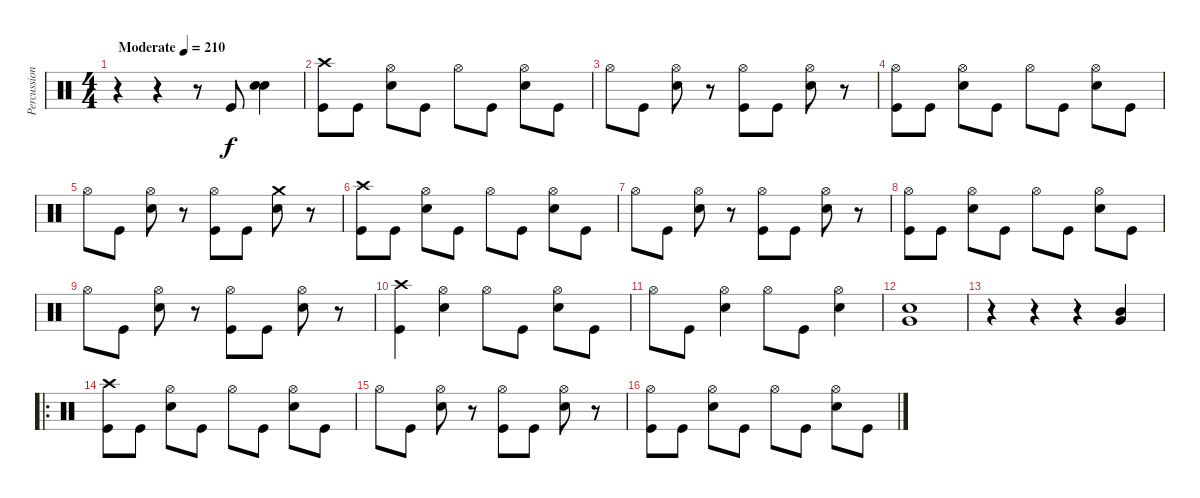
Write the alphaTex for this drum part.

\track ("Percussion" "Percussion") {instrument percussion}
\staff {score}
\articulation defaults
\ts (4 4)
\tempo (210 "Moderate")
\clef neutral
\ks c
r.4{dy f} r.4 r.8 "Kick (hit)".8 ("Electric Snare (hit)" "Electric Snare (hit)").4 |
("Crash high (hit)" "Kick (hit)").8 "Kick (hit)".8 ("Hi-Hat (open)" "Electric Snare (hit)").8 "Kick (hit)".8 "Hi-Hat (open)".8 "Kick (hit)".8 ("Hi-Hat (open)" "Electric Snare (hit)").8 "Kick (hit)".8 |
"Hi-Hat (open)".8 "Kick (hit)".8 ("Hi-Hat (open)" "Electric Snare (hit)").8 r.8 ("Hi-Hat (open)" "Kick (hit)").8 "Kick (hit)".8 ("Hi-Hat (open)" "Electric Snare (hit)").8 r.8 |
("Hi-Hat (open)" "Kick (hit)").8 "Kick (hit)".8 ("Hi-Hat (open)" "Electric Snare (hit)").8 "Kick (hit)".8 "Hi-Hat (open)".8 "Kick (hit)".8 ("Hi-Hat (open)" "Electric Snare (hit)").8 "Kick (hit)".8 |
"Hi-Hat (open)".8 "Kick (hit)".8 ("Hi-Hat (open)" "Electric Snare (hit)").8 r.8 ("Hi-Hat (open)" "Kick (hit)").8 "Kick (hit)".8 ("Crash medium (hit)" "Electric Snare (hit)").8 r.8 |
("Crash high (hit)" "Kick (hit)").8 "Kick (hit)".8 ("Hi-Hat (open)" "Electric Snare (hit)").8 "Kick (hit)".8 "Hi-Hat (open)".8 "Kick (hit)".8 ("Hi-Hat (open)" "Electric Snare (hit)").8 "Kick (hit)".8 |
"Hi-Hat (open)".8 "Kick (hit)".8 ("Hi-Hat (open)" "Electric Snare (hit)").8 r.8 ("Hi-Hat (open)" "Kick (hit)").8 "Kick (hit)".8 ("Hi-Hat (open)" "Electric Snare (hit)").8 r.8 |
("Hi-Hat (open)" "Kick (hit)").8 "Kick (hit)".8 ("Hi-Hat (open)" "Electric Snare (hit)").8 "Kick (hit)".8 "Hi-Hat (open)".8 "Kick (hit)".8 ("Hi-Hat (open)" "Electric Snare (hit)").8 "Kick (hit)".8 |
"Hi-Hat (open)".8 "Kick (hit)".8 ("Hi-Hat (open)" "Electric Snare (hit)").8 r.8 ("Hi-Hat (open)" "Kick (hit)").8 "Kick (hit)".8 ("Hi-Hat (open)" "Electric Snare (hit)").8 r.8 |
("Crash high (hit)" "Kick (hit)").4 ("Hi-Hat (open)" "Electric Snare (hit)").4 "Hi-Hat (open)".8 "Kick (hit)".8 ("Hi-Hat (open)" "Electric Snare (hit)").8 "Kick (hit)".8 |
"Hi-Hat (open)".8 "Kick (hit)".8 ("Hi-Hat (open)" "Electric Snare (hit)").4 "Hi-Hat (open)".8 "Kick (hit)".8 ("Hi-Hat (open)" "Electric Snare (hit)").4 |
("Very Low Tom (hit)" "Electric Snare (hit)").1 |
r.4 r.4 r.4 ("Mid Tom (hit)" "Very Low Tom (hit)").4 |
\ro
("Crash high (hit)" "Kick (hit)").8 "Kick (hit)".8 ("Hi-Hat (open)" "Electric Snare (hit)").8 "Kick (hit)".8 "Hi-Hat (open)".8 "Kick (hit)".8 ("Hi-Hat (open)" "Electric Snare (hit)").8 "Kick (hit)".8 |
"Hi-Hat (open)".8 "Kick (hit)".8 ("Hi-Hat (open)" "Electric Snare (hit)").8 r.8 ("Hi-Hat (open)" "Kick (hit)").8 "Kick (hit)".8 ("Hi-Hat (open)" "Electric Snare (hit)").8 r.8 |
("Hi-Hat (open)" "Kick (hit)").8 "Kick (hit)".8 ("Hi-Hat (open)" "Electric Snare (hit)").8 "Kick (hit)".8 "Hi-Hat (open)".8 "Kick (hit)".8 ("Hi-Hat (open)" "Electric Snare (hit)").8 "Kick (hit)".8
